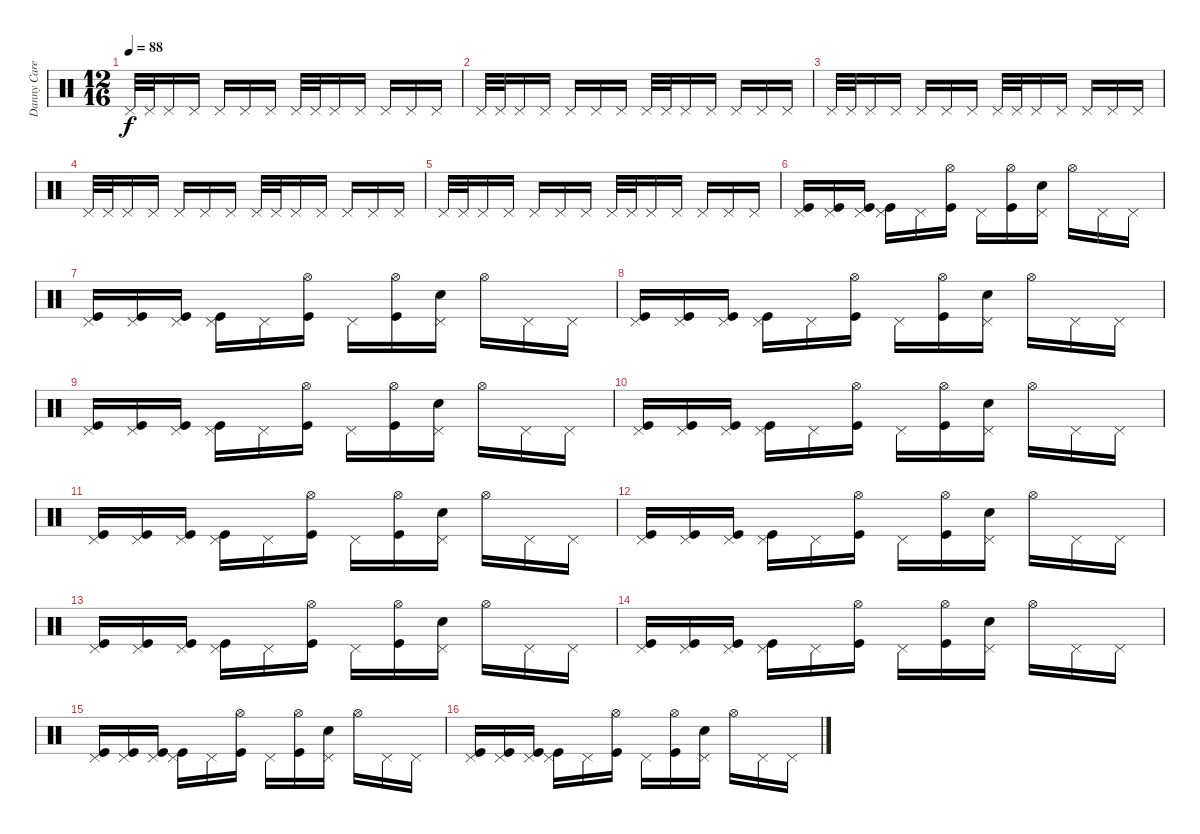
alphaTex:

\track ("Danny Carey" "Danny Care") {instrument percussion}
\staff {score}
\articulation defaults
\ts (12 16)
\tempo 88
\clef neutral
\ks c "Pedal Hi-Hat (hit)".32{dy f} "Pedal Hi-Hat (hit)".32 "Pedal Hi-Hat (hit)".16 "Pedal Hi-Hat (hit)".16 "Pedal Hi-Hat (hit)".16 "Pedal Hi-Hat (hit)".16 "Pedal Hi-Hat (hit)".16 "Pedal Hi-Hat (hit)".32 "Pedal Hi-Hat (hit)".32 "Pedal Hi-Hat (hit)".16 "Pedal Hi-Hat (hit)".16 "Pedal Hi-Hat (hit)".16 "Pedal Hi-Hat (hit)".16 "Pedal Hi-Hat (hit)".16
|
"Pedal Hi-Hat (hit)".32 "Pedal Hi-Hat (hit)".32 "Pedal Hi-Hat (hit)".16 "Pedal Hi-Hat (hit)".16 "Pedal Hi-Hat (hit)".16 "Pedal Hi-Hat (hit)".16 "Pedal Hi-Hat (hit)".16 "Pedal Hi-Hat (hit)".32 "Pedal Hi-Hat (hit)".32 "Pedal Hi-Hat (hit)".16 "Pedal Hi-Hat (hit)".16 "Pedal Hi-Hat (hit)".16 "Pedal Hi-Hat (hit)".16 "Pedal Hi-Hat (hit)".16 |
"Pedal Hi-Hat (hit)".32 "Pedal Hi-Hat (hit)".32 "Pedal Hi-Hat (hit)".16 "Pedal Hi-Hat (hit)".16 "Pedal Hi-Hat (hit)".16 "Pedal Hi-Hat (hit)".16 "Pedal Hi-Hat (hit)".16 "Pedal Hi-Hat (hit)".32 "Pedal Hi-Hat (hit)".32 "Pedal Hi-Hat (hit)".16 "Pedal Hi-Hat (hit)".16 "Pedal Hi-Hat (hit)".16 "Pedal Hi-Hat (hit)".16 "Pedal Hi-Hat (hit)".16 |
"Pedal Hi-Hat (hit)".32 "Pedal Hi-Hat (hit)".32 "Pedal Hi-Hat (hit)".16 "Pedal Hi-Hat (hit)".16 "Pedal Hi-Hat (hit)".16 "Pedal Hi-Hat (hit)".16 "Pedal Hi-Hat (hit)".16 "Pedal Hi-Hat (hit)".32 "Pedal Hi-Hat (hit)".32 "Pedal Hi-Hat (hit)".16 "Pedal Hi-Hat (hit)".16 "Pedal Hi-Hat (hit)".16 "Pedal Hi-Hat (hit)".16 "Pedal Hi-Hat (hit)".16 |
"Pedal Hi-Hat (hit)".32 "Pedal Hi-Hat (hit)".32 "Pedal Hi-Hat (hit)".16 "Pedal Hi-Hat (hit)".16 "Pedal Hi-Hat (hit)".16 "Pedal Hi-Hat (hit)".16 "Pedal Hi-Hat (hit)".16 "Pedal Hi-Hat (hit)".32 "Pedal Hi-Hat (hit)".32 "Pedal Hi-Hat (hit)".16 "Pedal Hi-Hat (hit)".16 "Pedal Hi-Hat (hit)".16 "Pedal Hi-Hat (hit)".16 "Pedal Hi-Hat (hit)".16 |
("Pedal Hi-Hat (hit)" "Kick (hit)").16 ("Pedal Hi-Hat (hit)" "Kick (hit)").16 ("Pedal Hi-Hat (hit)" "Kick (hit)").16 ("Pedal Hi-Hat (hit)" "Kick (hit)").16 "Pedal Hi-Hat (hit)".16 ("Hi-Hat (open)" "Kick (hit)").16 "Pedal Hi-Hat (hit)".16 ("Hi-Hat (open)" "Kick (hit)").16 ("Pedal Hi-Hat (hit)" "Electric Snare (hit)").16 "Hi-Hat (open)".16 "Pedal Hi-Hat (hit)".16 "Pedal Hi-Hat (hit)".16 |
("Pedal Hi-Hat (hit)" "Kick (hit)").16 ("Pedal Hi-Hat (hit)" "Kick (hit)").16 ("Pedal Hi-Hat (hit)" "Kick (hit)").16 ("Pedal Hi-Hat (hit)" "Kick (hit)").16 "Pedal Hi-Hat (hit)".16 ("Hi-Hat (open)" "Kick (hit)").16 "Pedal Hi-Hat (hit)".16 ("Hi-Hat (open)" "Kick (hit)").16 ("Pedal Hi-Hat (hit)" "Electric Snare (hit)").16 "Hi-Hat (open)".16 "Pedal Hi-Hat (hit)".16 "Pedal Hi-Hat (hit)".16 |
("Pedal Hi-Hat (hit)" "Kick (hit)").16 ("Pedal Hi-Hat (hit)" "Kick (hit)").16 ("Pedal Hi-Hat (hit)" "Kick (hit)").16 ("Pedal Hi-Hat (hit)" "Kick (hit)").16 "Pedal Hi-Hat (hit)".16 ("Hi-Hat (open)" "Kick (hit)").16 "Pedal Hi-Hat (hit)".16 ("Hi-Hat (open)" "Kick (hit)").16 ("Pedal Hi-Hat (hit)" "Electric Snare (hit)").16 "Hi-Hat (open)".16 "Pedal Hi-Hat (hit)".16 "Pedal Hi-Hat (hit)".16 |
("Pedal Hi-Hat (hit)" "Kick (hit)").16 ("Pedal Hi-Hat (hit)" "Kick (hit)").16 ("Pedal Hi-Hat (hit)" "Kick (hit)").16 ("Pedal Hi-Hat (hit)" "Kick (hit)").16 "Pedal Hi-Hat (hit)".16 ("Hi-Hat (open)" "Kick (hit)").16 "Pedal Hi-Hat (hit)".16 ("Hi-Hat (open)" "Kick (hit)").16 ("Pedal Hi-Hat (hit)" "Electric Snare (hit)").16 "Hi-Hat (open)".16 "Pedal Hi-Hat (hit)".16 "Pedal Hi-Hat (hit)".16 |
("Pedal Hi-Hat (hit)" "Kick (hit)").16 ("Pedal Hi-Hat (hit)" "Kick (hit)").16 ("Pedal Hi-Hat (hit)" "Kick (hit)").16 ("Pedal Hi-Hat (hit)" "Kick (hit)").16 "Pedal Hi-Hat (hit)".16 ("Hi-Hat (open)" "Kick (hit)").16 "Pedal Hi-Hat (hit)".16 ("Hi-Hat (open)" "Kick (hit)").16 ("Pedal Hi-Hat (hit)" "Electric Snare (hit)").16 "Hi-Hat (open)".16 "Pedal Hi-Hat (hit)".16 "Pedal Hi-Hat (hit)".16 |
("Pedal Hi-Hat (hit)" "Kick (hit)").16 ("Pedal Hi-Hat (hit)" "Kick (hit)").16 ("Pedal Hi-Hat (hit)" "Kick (hit)").16 ("Pedal Hi-Hat (hit)" "Kick (hit)").16 "Pedal Hi-Hat (hit)".16 ("Hi-Hat (open)" "Kick (hit)").16 "Pedal Hi-Hat (hit)".16 ("Hi-Hat (open)" "Kick (hit)").16 ("Pedal Hi-Hat (hit)" "Electric Snare (hit)").16 "Hi-Hat (open)".16 "Pedal Hi-Hat (hit)".16 "Pedal Hi-Hat (hit)".16 |
("Pedal Hi-Hat (hit)" "Kick (hit)").16 ("Pedal Hi-Hat (hit)" "Kick (hit)").16 ("Pedal Hi-Hat (hit)" "Kick (hit)").16 ("Pedal Hi-Hat (hit)" "Kick (hit)").16 "Pedal Hi-Hat (hit)".16 ("Hi-Hat (open)" "Kick (hit)").16 "Pedal Hi-Hat (hit)".16 ("Hi-Hat (open)" "Kick (hit)").16 ("Pedal Hi-Hat (hit)" "Electric Snare (hit)").16 "Hi-Hat (open)".16 "Pedal Hi-Hat (hit)".16 "Pedal Hi-Hat (hit)".16 |
("Pedal Hi-Hat (hit)" "Kick (hit)").16 ("Pedal Hi-Hat (hit)" "Kick (hit)").16 ("Pedal Hi-Hat (hit)" "Kick (hit)").16 ("Pedal Hi-Hat (hit)" "Kick (hit)").16 "Pedal Hi-Hat (hit)".16 ("Hi-Hat (open)" "Kick (hit)").16 "Pedal Hi-Hat (hit)".16 ("Hi-Hat (open)" "Kick (hit)").16 ("Pedal Hi-Hat (hit)" "Electric Snare (hit)").16 "Hi-Hat (open)".16 "Pedal Hi-Hat (hit)".16 "Pedal Hi-Hat (hit)".16 |
("Pedal Hi-Hat (hit)" "Kick (hit)").16 ("Pedal Hi-Hat (hit)" "Kick (hit)").16 ("Pedal Hi-Hat (hit)" "Kick (hit)").16 ("Pedal Hi-Hat (hit)" "Kick (hit)").16 "Pedal Hi-Hat (hit)".16 ("Hi-Hat (open)" "Kick (hit)").16 "Pedal Hi-Hat (hit)".16 ("Hi-Hat (open)" "Kick (hit)").16 ("Pedal Hi-Hat (hit)" "Electric Snare (hit)").16 "Hi-Hat (open)".16 "Pedal Hi-Hat (hit)".16 "Pedal Hi-Hat (hit)".16 |
("Pedal Hi-Hat (hit)" "Kick (hit)").16 ("Pedal Hi-Hat (hit)" "Kick (hit)").16 ("Pedal Hi-Hat (hit)" "Kick (hit)").16 ("Pedal Hi-Hat (hit)" "Kick (hit)").16 "Pedal Hi-Hat (hit)".16 ("Hi-Hat (open)" "Kick (hit)").16 "Pedal Hi-Hat (hit)".16 ("Hi-Hat (open)" "Kick (hit)").16 ("Pedal Hi-Hat (hit)" "Electric Snare (hit)").16 "Hi-Hat (open)".16 "Pedal Hi-Hat (hit)".16 "Pedal Hi-Hat (hit)".16 |
("Pedal Hi-Hat (hit)" "Kick (hit)").16 ("Pedal Hi-Hat (hit)" "Kick (hit)").16 ("Pedal Hi-Hat (hit)" "Kick (hit)").16 ("Pedal Hi-Hat (hit)" "Kick (hit)").16 "Pedal Hi-Hat (hit)".16 ("Hi-Hat (open)" "Kick (hit)").16 "Pedal Hi-Hat (hit)".16 ("Hi-Hat (open)" "Kick (hit)").16 ("Pedal Hi-Hat (hit)" "Electric Snare (hit)").16 "Hi-Hat (open)".16 "Pedal Hi-Hat (hit)".16 "Pedal Hi-Hat (hit)".16
